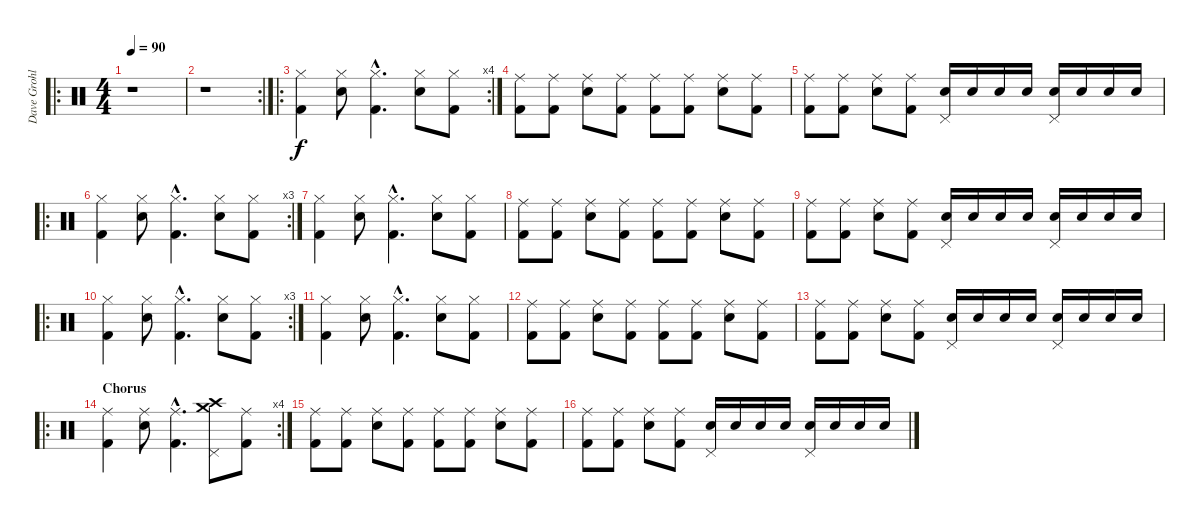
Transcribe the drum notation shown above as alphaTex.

\track ("Dave Grohl" "Dave Grohl") {instrument percussion}
\staff {score}
\articulation defaults
\ro
\ts (4 4)
\tempo 90
\clef neutral
\ks c
r.1{dy f} |
\rc 2
r.1 |
\ro
\rc 4
("Hi-Hat (closed)" "Kick (hit) 2").4 ("Hi-Hat (closed)" "Electric Snare (hit)").8 ("Hi-Hat (closed)"{hac} "Kick (hit) 2"{hac}).4{d} ("Hi-Hat (closed)" "Electric Snare (hit)").8 ("Hi-Hat (closed)" "Kick (hit) 2").8 |
("Ride (middle)" "Kick (hit) 2").8 ("Ride (middle)" "Kick (hit) 2").8 ("Ride (middle)" "Electric Snare (hit)").8 ("Ride (middle)" "Kick (hit) 2").8 ("Ride (middle)" "Kick (hit) 2").8 ("Ride (middle)" "Kick (hit) 2").8 ("Ride (middle)" "Electric Snare (hit)").8 ("Ride (middle)" "Kick (hit) 2").8 |
("Ride (middle)" "Kick (hit) 2").8 ("Ride (middle)" "Kick (hit) 2").8 ("Ride (middle)" "Electric Snare (hit)").8 ("Ride (middle)" "Kick (hit) 2").8 ("Pedal Hi-Hat (hit)" "Electric Snare (hit)").16 "Electric Snare (hit)".16 "Electric Snare (hit)".16 "Electric Snare (hit)".16 ("Pedal Hi-Hat (hit)" "Electric Snare (hit)").16 "Electric Snare (hit)".16 "Electric Snare (hit)".16 "Electric Snare (hit)".16 |
\ro
\rc 3
("Hi-Hat (closed)" "Kick (hit) 2").4 ("Hi-Hat (closed)" "Electric Snare (hit)").8 ("Hi-Hat (closed)"{hac} "Kick (hit) 2"{hac}).4{d} ("Hi-Hat (closed)" "Electric Snare (hit)").8 ("Hi-Hat (closed)" "Kick (hit) 2").8 |
("Hi-Hat (closed)" "Kick (hit) 2").4 ("Hi-Hat (closed)" "Electric Snare (hit)").8 ("Hi-Hat (closed)"{hac} "Kick (hit) 2"{hac}).4{d} ("Hi-Hat (closed)" "Electric Snare (hit)").8 ("Hi-Hat (closed)" "Kick (hit) 2").8 |
("Ride (middle)" "Kick (hit) 2").8 ("Ride (middle)" "Kick (hit) 2").8 ("Ride (middle)" "Electric Snare (hit)").8 ("Ride (middle)" "Kick (hit) 2").8 ("Ride (middle)" "Kick (hit) 2").8 ("Ride (middle)" "Kick (hit) 2").8 ("Ride (middle)" "Electric Snare (hit)").8 ("Ride (middle)" "Kick (hit) 2").8 |
("Ride (middle)" "Kick (hit) 2").8 ("Ride (middle)" "Kick (hit) 2").8 ("Ride (middle)" "Electric Snare (hit)").8 ("Ride (middle)" "Kick (hit) 2").8 ("Pedal Hi-Hat (hit)" "Electric Snare (hit)").16 "Electric Snare (hit)".16 "Electric Snare (hit)".16 "Electric Snare (hit)".16 ("Pedal Hi-Hat (hit)" "Electric Snare (hit)").16 "Electric Snare (hit)".16 "Electric Snare (hit)".16 "Electric Snare (hit)".16 |
\ro
\rc 3
("Hi-Hat (closed)" "Kick (hit) 2").4 ("Hi-Hat (closed)" "Electric Snare (hit)").8 ("Hi-Hat (closed)"{hac} "Kick (hit) 2"{hac}).4{d} ("Hi-Hat (closed)" "Electric Snare (hit)").8 ("Hi-Hat (closed)" "Kick (hit) 2").8 |
("Hi-Hat (closed)" "Kick (hit) 2").4 ("Hi-Hat (closed)" "Electric Snare (hit)").8 ("Hi-Hat (closed)"{hac} "Kick (hit) 2"{hac}).4{d} ("Hi-Hat (closed)" "Electric Snare (hit)").8 ("Hi-Hat (closed)" "Kick (hit) 2").8 |
("Ride (middle)" "Kick (hit) 2").8 ("Ride (middle)" "Kick (hit) 2").8 ("Ride (middle)" "Electric Snare (hit)").8 ("Ride (middle)" "Kick (hit) 2").8 ("Ride (middle)" "Kick (hit) 2").8 ("Ride (middle)" "Kick (hit) 2").8 ("Ride (middle)" "Electric Snare (hit)").8 ("Ride (middle)" "Kick (hit) 2").8 |
("Ride (middle)" "Kick (hit) 2").8 ("Ride (middle)" "Kick (hit) 2").8 ("Ride (middle)" "Electric Snare (hit)").8 ("Ride (middle)" "Kick (hit) 2").8 ("Pedal Hi-Hat (hit)" "Electric Snare (hit)").16 "Electric Snare (hit)".16 "Electric Snare (hit)".16 "Electric Snare (hit)".16 ("Pedal Hi-Hat (hit)" "Electric Snare (hit)").16 "Electric Snare (hit)".16 "Electric Snare (hit)".16 "Electric Snare (hit)".16 |
\ro
\rc 4
\section ("" "Chorus")
("Ride (middle)" "Kick (hit) 2").4 ("Ride (middle)" "Electric Snare (hit)").8 ("Ride (middle)"{hac} "Kick (hit) 2"{hac}).4{d} ("Pedal Hi-Hat (hit)" "Crash high (hit)" "Crash medium (hit)").8 ("Ride (middle)" "Kick (hit) 2").8 |
("Ride (middle)" "Kick (hit) 2").8 ("Ride (middle)" "Kick (hit) 2").8 ("Ride (middle)" "Electric Snare (hit)").8 ("Ride (middle)" "Kick (hit) 2").8 ("Ride (middle)" "Kick (hit) 2").8 ("Ride (middle)" "Kick (hit) 2").8 ("Ride (middle)" "Electric Snare (hit)").8 ("Ride (middle)" "Kick (hit) 2").8 |
("Ride (middle)" "Kick (hit) 2").8 ("Ride (middle)" "Kick (hit) 2").8 ("Ride (middle)" "Electric Snare (hit)").8 ("Ride (middle)" "Kick (hit) 2").8 ("Pedal Hi-Hat (hit)" "Electric Snare (hit)").16 "Electric Snare (hit)".16 "Electric Snare (hit)".16 "Electric Snare (hit)".16 ("Pedal Hi-Hat (hit)" "Electric Snare (hit)").16 "Electric Snare (hit)".16 "Electric Snare (hit)".16 "Electric Snare (hit)".16
